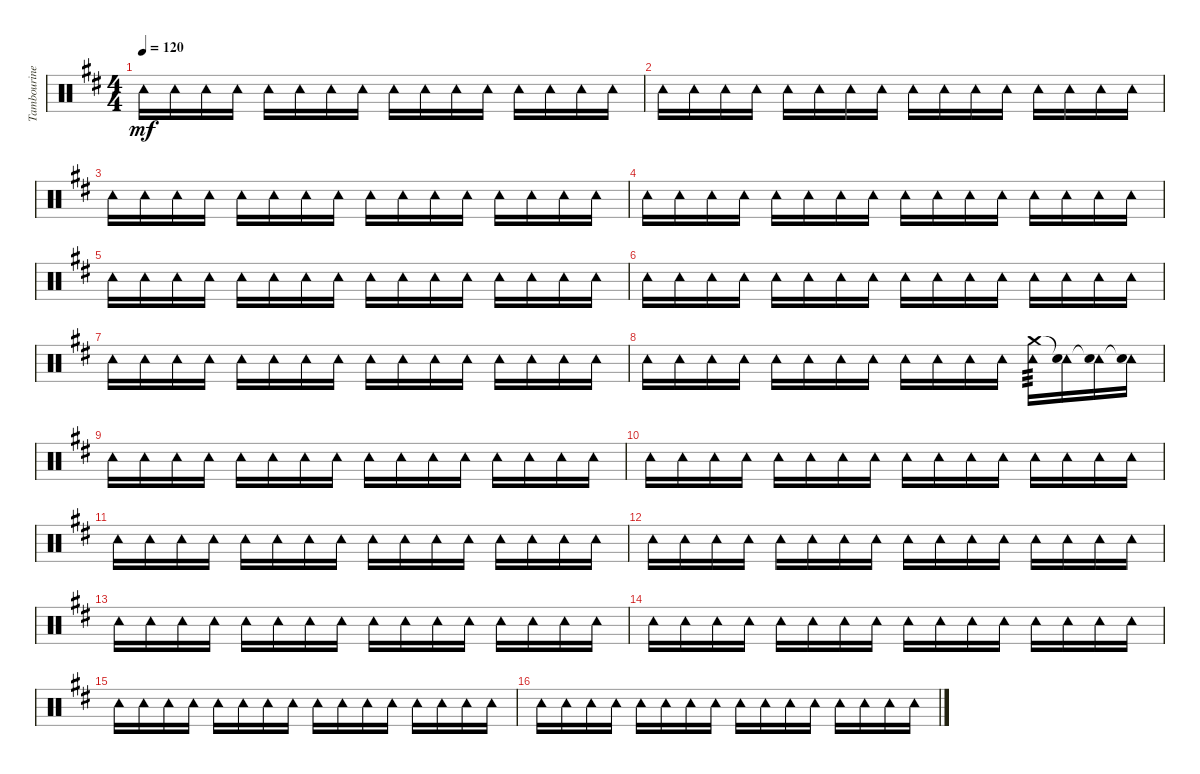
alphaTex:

\track ("Tambourine" "Tambourine") {instrument percussion}
\staff {score}
\articulation defaults
\ts (4 4)
\tempo 120
\clef neutral
\ks d "Tambourine (hit)".16{dy mf} "Tambourine (hit)".16 "Tambourine (hit)".16 "Tambourine (hit)".16 "Tambourine (hit)".16 "Tambourine (hit)".16 "Tambourine (hit)".16 "Tambourine (hit)".16 "Tambourine (hit)".16 "Tambourine (hit)".16 "Tambourine (hit)".16 "Tambourine (hit)".16 "Tambourine (hit)".16 "Tambourine (hit)".16 "Tambourine (hit)".16 "Tambourine (hit)".16
|
"Tambourine (hit)".16 "Tambourine (hit)".16 "Tambourine (hit)".16 "Tambourine (hit)".16 "Tambourine (hit)".16 "Tambourine (hit)".16 "Tambourine (hit)".16 "Tambourine (hit)".16 "Tambourine (hit)".16 "Tambourine (hit)".16 "Tambourine (hit)".16 "Tambourine (hit)".16 "Tambourine (hit)".16 "Tambourine (hit)".16 "Tambourine (hit)".16 "Tambourine (hit)".16 |
"Tambourine (hit)".16 "Tambourine (hit)".16 "Tambourine (hit)".16 "Tambourine (hit)".16 "Tambourine (hit)".16 "Tambourine (hit)".16 "Tambourine (hit)".16 "Tambourine (hit)".16 "Tambourine (hit)".16 "Tambourine (hit)".16 "Tambourine (hit)".16 "Tambourine (hit)".16 "Tambourine (hit)".16 "Tambourine (hit)".16 "Tambourine (hit)".16 "Tambourine (hit)".16 |
"Tambourine (hit)".16 "Tambourine (hit)".16 "Tambourine (hit)".16 "Tambourine (hit)".16 "Tambourine (hit)".16 "Tambourine (hit)".16 "Tambourine (hit)".16 "Tambourine (hit)".16 "Tambourine (hit)".16 "Tambourine (hit)".16 "Tambourine (hit)".16 "Tambourine (hit)".16 "Tambourine (hit)".16 "Tambourine (hit)".16 "Tambourine (hit)".16 "Tambourine (hit)".16 |
"Tambourine (hit)".16 "Tambourine (hit)".16 "Tambourine (hit)".16 "Tambourine (hit)".16 "Tambourine (hit)".16 "Tambourine (hit)".16 "Tambourine (hit)".16 "Tambourine (hit)".16 "Tambourine (hit)".16 "Tambourine (hit)".16 "Tambourine (hit)".16 "Tambourine (hit)".16 "Tambourine (hit)".16 "Tambourine (hit)".16 "Tambourine (hit)".16 "Tambourine (hit)".16 |
"Tambourine (hit)".16 "Tambourine (hit)".16 "Tambourine (hit)".16 "Tambourine (hit)".16 "Tambourine (hit)".16 "Tambourine (hit)".16 "Tambourine (hit)".16 "Tambourine (hit)".16 "Tambourine (hit)".16 "Tambourine (hit)".16 "Tambourine (hit)".16 "Tambourine (hit)".16 "Tambourine (hit)".16 "Tambourine (hit)".16 "Tambourine (hit)".16 "Tambourine (hit)".16 |
"Tambourine (hit)".16 "Tambourine (hit)".16 "Tambourine (hit)".16 "Tambourine (hit)".16 "Tambourine (hit)".16 "Tambourine (hit)".16 "Tambourine (hit)".16 "Tambourine (hit)".16 "Tambourine (hit)".16 "Tambourine (hit)".16 "Tambourine (hit)".16 "Tambourine (hit)".16 "Tambourine (hit)".16 "Tambourine (hit)".16 "Tambourine (hit)".16 "Tambourine (hit)".16 |
"Tambourine (hit)".16 "Tambourine (hit)".16 "Tambourine (hit)".16 "Tambourine (hit)".16 "Tambourine (hit)".16 "Tambourine (hit)".16 "Tambourine (hit)".16 "Tambourine (hit)".16 "Tambourine (hit)".16 "Tambourine (hit)".16 "Tambourine (hit)".16 "Tambourine (hit)".16 ("Tambourine (hit)" "Crash medium (hit)").16{tp 3} ("Tambourine (hit)" "Snare (hit)"{t}).16 ("Tambourine (hit)" "Snare (hit)"{t}).16 ("Tambourine (hit)" "Snare (hit)"{t}).16 |
"Tambourine (hit)".16 "Tambourine (hit)".16 "Tambourine (hit)".16 "Tambourine (hit)".16 "Tambourine (hit)".16 "Tambourine (hit)".16 "Tambourine (hit)".16 "Tambourine (hit)".16 "Tambourine (hit)".16 "Tambourine (hit)".16 "Tambourine (hit)".16 "Tambourine (hit)".16 "Tambourine (hit)".16 "Tambourine (hit)".16 "Tambourine (hit)".16 "Tambourine (hit)".16 |
"Tambourine (hit)".16 "Tambourine (hit)".16 "Tambourine (hit)".16 "Tambourine (hit)".16 "Tambourine (hit)".16 "Tambourine (hit)".16 "Tambourine (hit)".16 "Tambourine (hit)".16 "Tambourine (hit)".16 "Tambourine (hit)".16 "Tambourine (hit)".16 "Tambourine (hit)".16 "Tambourine (hit)".16 "Tambourine (hit)".16 "Tambourine (hit)".16 "Tambourine (hit)".16 |
"Tambourine (hit)".16 "Tambourine (hit)".16 "Tambourine (hit)".16 "Tambourine (hit)".16 "Tambourine (hit)".16 "Tambourine (hit)".16 "Tambourine (hit)".16 "Tambourine (hit)".16 "Tambourine (hit)".16 "Tambourine (hit)".16 "Tambourine (hit)".16 "Tambourine (hit)".16 "Tambourine (hit)".16 "Tambourine (hit)".16 "Tambourine (hit)".16 "Tambourine (hit)".16 |
"Tambourine (hit)".16 "Tambourine (hit)".16 "Tambourine (hit)".16 "Tambourine (hit)".16 "Tambourine (hit)".16 "Tambourine (hit)".16 "Tambourine (hit)".16 "Tambourine (hit)".16 "Tambourine (hit)".16 "Tambourine (hit)".16 "Tambourine (hit)".16 "Tambourine (hit)".16 "Tambourine (hit)".16 "Tambourine (hit)".16 "Tambourine (hit)".16 "Tambourine (hit)".16 |
"Tambourine (hit)".16 "Tambourine (hit)".16 "Tambourine (hit)".16 "Tambourine (hit)".16 "Tambourine (hit)".16 "Tambourine (hit)".16 "Tambourine (hit)".16 "Tambourine (hit)".16 "Tambourine (hit)".16 "Tambourine (hit)".16 "Tambourine (hit)".16 "Tambourine (hit)".16 "Tambourine (hit)".16 "Tambourine (hit)".16 "Tambourine (hit)".16 "Tambourine (hit)".16 |
"Tambourine (hit)".16 "Tambourine (hit)".16 "Tambourine (hit)".16 "Tambourine (hit)".16 "Tambourine (hit)".16 "Tambourine (hit)".16 "Tambourine (hit)".16 "Tambourine (hit)".16 "Tambourine (hit)".16 "Tambourine (hit)".16 "Tambourine (hit)".16 "Tambourine (hit)".16 "Tambourine (hit)".16 "Tambourine (hit)".16 "Tambourine (hit)".16 "Tambourine (hit)".16 |
"Tambourine (hit)".16 "Tambourine (hit)".16 "Tambourine (hit)".16 "Tambourine (hit)".16 "Tambourine (hit)".16 "Tambourine (hit)".16 "Tambourine (hit)".16 "Tambourine (hit)".16 "Tambourine (hit)".16 "Tambourine (hit)".16 "Tambourine (hit)".16 "Tambourine (hit)".16 "Tambourine (hit)".16 "Tambourine (hit)".16 "Tambourine (hit)".16 "Tambourine (hit)".16 |
"Tambourine (hit)".16 "Tambourine (hit)".16 "Tambourine (hit)".16 "Tambourine (hit)".16 "Tambourine (hit)".16 "Tambourine (hit)".16 "Tambourine (hit)".16 "Tambourine (hit)".16 "Tambourine (hit)".16 "Tambourine (hit)".16 "Tambourine (hit)".16 "Tambourine (hit)".16 "Tambourine (hit)".16 "Tambourine (hit)".16 "Tambourine (hit)".16 "Tambourine (hit)".16
